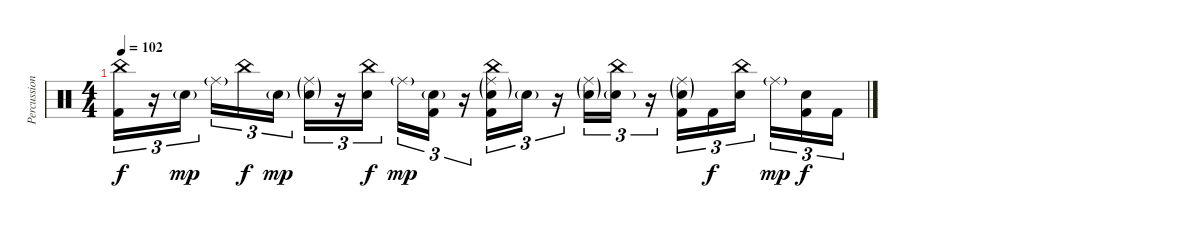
\track ("Percussion" "Percussion") {instrument percussion}
\staff {score}
\articulation defaults
\ts (4 4)
\tempo 102
\clef neutral
\ks c
("China (hit)" "Kick (hit) 2").16{tu (3 2) dy f} r.16{tu (3 2)} "Electric Snare (hit)"{g}.16{tu (3 2) dy mp beam splitsecondary} "Ride (middle)"{g}.16{tu (3 2)} "China (hit)".16{tu (3 2) dy f} "Electric Snare (hit)"{g}.16{tu (3 2) dy mp} ("Ride (middle)"{g} "Electric Snare (hit)"{g}).16{tu (3 2)} r.16{tu (3 2)} ("China (hit)" "Electric Snare (hit)").16{tu (3 2) dy f beam splitsecondary} "Ride (middle)"{g}.16{tu (3 2) dy mp} ("Electric Snare (hit)"{g} "Kick (hit) 2").16{tu (3 2)} r.16{tu (3 2)} ("China (hit)" "Ride (middle)"{g} "Electric Snare (hit)"{g} "Kick (hit) 2").16{tu (3 2)} "Electric Snare (hit)"{g}.16{tu (3 2)} r.16{tu (3 2)} ("Ride (middle)"{g} "Electric Snare (hit)"{g}).16{tu (3 2)} ("China (hit)" "Electric Snare (hit)"{g}).16{tu (3 2)} r.16{tu (3 2)} ("Ride (middle)"{g} "Electric Snare (hit)"{g} "Kick (hit) 2").16{tu (3 2)} "Kick (hit) 2".16{tu (3 2) dy f} ("China (hit)" "Electric Snare (hit)").16{tu (3 2) beam splitsecondary} "Ride (middle)"{g}.16{tu (3 2) dy mp} ("Electric Snare (hit)" "Kick (hit) 2").16{tu (3 2) dy f} "Kick (hit) 2".16{tu (3 2)}
